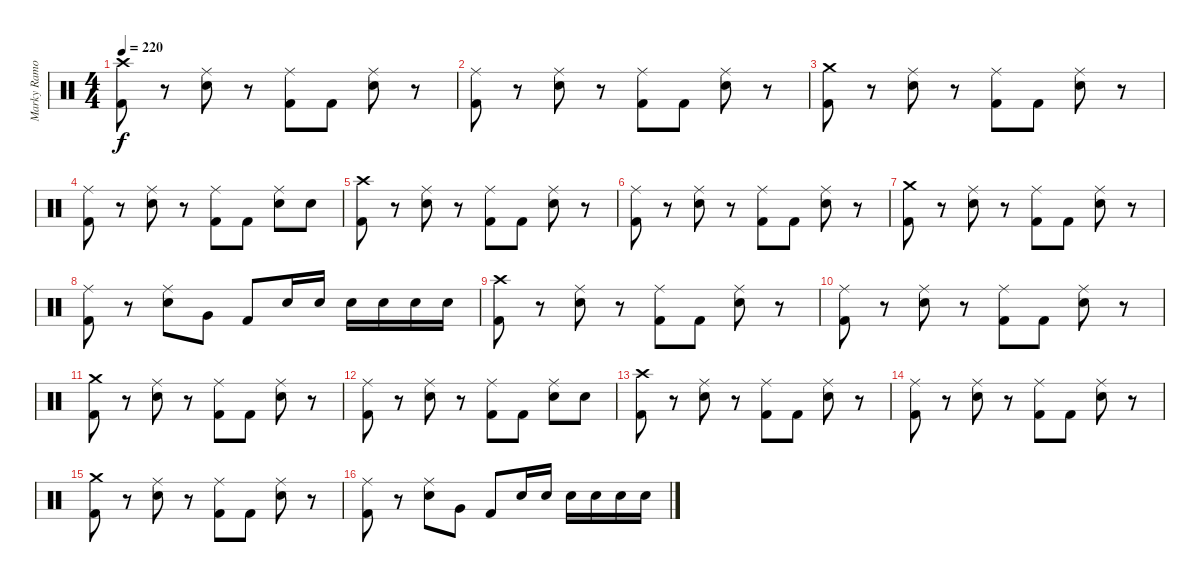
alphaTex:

\track ("Marky Ramone" "Marky Ramo") {instrument percussion}
\staff {score}
\articulation defaults
\ts (4 4)
\tempo 220
\clef neutral
\ks c
("Crash high (hit)" "Kick (hit) 2").8{dy f} r.8 ("Ride (middle)" "Electric Snare (hit)").8 r.8 ("Ride (middle)" "Kick (hit) 2").8 "Kick (hit) 2".8 ("Ride (middle)" "Electric Snare (hit)").8 r.8 |
("Ride (middle)" "Kick (hit) 2").8 r.8 ("Ride (middle)" "Electric Snare (hit)").8 r.8 ("Ride (middle)" "Kick (hit) 2").8 "Kick (hit) 2".8 ("Ride (middle)" "Electric Snare (hit)").8 r.8 |
("Crash medium (hit)" "Kick (hit) 2").8 r.8 ("Ride (middle)" "Electric Snare (hit)").8 r.8 ("Ride (middle)" "Kick (hit) 2").8 "Kick (hit) 2".8 ("Ride (middle)" "Electric Snare (hit)").8 r.8 |
("Ride (middle)" "Kick (hit) 2").8 r.8 ("Ride (middle)" "Electric Snare (hit)").8 r.8 ("Ride (middle)" "Kick (hit) 2").8 "Kick (hit) 2".8 ("Ride (middle)" "Electric Snare (hit)").8 "Electric Snare (hit)".8 |
("Crash high (hit)" "Kick (hit) 2").8 r.8 ("Ride (middle)" "Electric Snare (hit)").8 r.8 ("Ride (middle)" "Kick (hit) 2").8 "Kick (hit) 2".8 ("Ride (middle)" "Electric Snare (hit)").8 r.8 |
("Ride (middle)" "Kick (hit) 2").8 r.8 ("Ride (middle)" "Electric Snare (hit)").8 r.8 ("Ride (middle)" "Kick (hit) 2").8 "Kick (hit) 2".8 ("Ride (middle)" "Electric Snare (hit)").8 r.8 |
("Crash medium (hit)" "Kick (hit) 2").8 r.8 ("Ride (middle)" "Electric Snare (hit)").8 r.8 ("Ride (middle)" "Kick (hit) 2").8 "Kick (hit) 2".8 ("Ride (middle)" "Electric Snare (hit)").8 r.8 |
("Ride (middle)" "Kick (hit) 2").8 r.8 ("Ride (middle)" "Electric Snare (hit)").8 "Very Low Tom (hit)".8 "Kick (hit) 2".8 "Electric Snare (hit)".16 "Electric Snare (hit)".16 "Electric Snare (hit)".16 "Electric Snare (hit)".16 "Electric Snare (hit)".16 "Electric Snare (hit)".16 |
("Crash high (hit)" "Kick (hit) 2").8 r.8 ("Ride (middle)" "Electric Snare (hit)").8 r.8 ("Ride (middle)" "Kick (hit) 2").8 "Kick (hit) 2".8 ("Ride (middle)" "Electric Snare (hit)").8 r.8 |
("Ride (middle)" "Kick (hit) 2").8 r.8 ("Ride (middle)" "Electric Snare (hit)").8 r.8 ("Ride (middle)" "Kick (hit) 2").8 "Kick (hit) 2".8 ("Ride (middle)" "Electric Snare (hit)").8 r.8 |
("Crash medium (hit)" "Kick (hit) 2").8 r.8 ("Ride (middle)" "Electric Snare (hit)").8 r.8 ("Ride (middle)" "Kick (hit) 2").8 "Kick (hit) 2".8 ("Ride (middle)" "Electric Snare (hit)").8 r.8 |
("Ride (middle)" "Kick (hit) 2").8 r.8 ("Ride (middle)" "Electric Snare (hit)").8 r.8 ("Ride (middle)" "Kick (hit) 2").8 "Kick (hit) 2".8 ("Ride (middle)" "Electric Snare (hit)").8 "Electric Snare (hit)".8 |
("Crash high (hit)" "Kick (hit) 2").8 r.8 ("Ride (middle)" "Electric Snare (hit)").8 r.8 ("Ride (middle)" "Kick (hit) 2").8 "Kick (hit) 2".8 ("Ride (middle)" "Electric Snare (hit)").8 r.8 |
("Ride (middle)" "Kick (hit) 2").8 r.8 ("Ride (middle)" "Electric Snare (hit)").8 r.8 ("Ride (middle)" "Kick (hit) 2").8 "Kick (hit) 2".8 ("Ride (middle)" "Electric Snare (hit)").8 r.8 |
("Crash medium (hit)" "Kick (hit) 2").8 r.8 ("Ride (middle)" "Electric Snare (hit)").8 r.8 ("Ride (middle)" "Kick (hit) 2").8 "Kick (hit) 2".8 ("Ride (middle)" "Electric Snare (hit)").8 r.8 |
("Ride (middle)" "Kick (hit) 2").8 r.8 ("Ride (middle)" "Electric Snare (hit)").8 "Very Low Tom (hit)".8 "Kick (hit) 2".8 "Electric Snare (hit)".16 "Electric Snare (hit)".16 "Electric Snare (hit)".16 "Electric Snare (hit)".16 "Electric Snare (hit)".16 "Electric Snare (hit)".16
